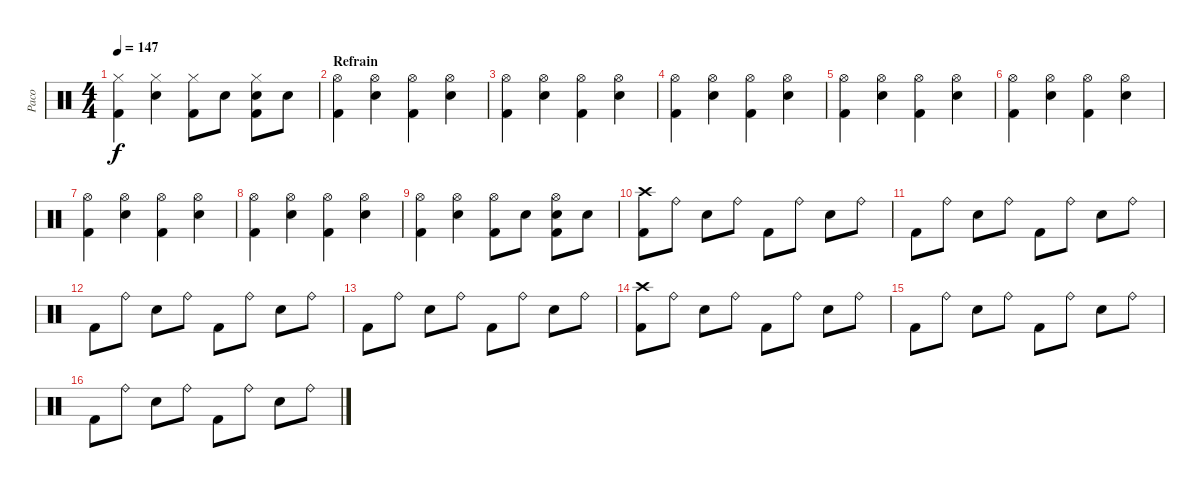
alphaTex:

\track ("Paco" "Paco") {instrument percussion}
\staff {score}
\articulation defaults
\ts (4 4)
\tempo 147
\clef neutral
\ks c
("Hi-Hat (closed)" "Kick (hit) 2").4{dy f} ("Hi-Hat (closed)" "Snare (hit) 2").4 ("Hi-Hat (closed)" "Kick (hit) 2").8 "Snare (hit) 2".8 ("Hi-Hat (closed)" "Snare (hit) 2" "Kick (hit) 2").8 "Snare (hit) 2".8 |
\section ("" "Refrain")
("Hi-Hat (open)" "Kick (hit) 2").4 ("Hi-Hat (open)" "Snare (hit) 2").4 ("Hi-Hat (open)" "Kick (hit) 2").4 ("Hi-Hat (open)" "Snare (hit) 2").4 |
("Hi-Hat (open)" "Kick (hit) 2").4 ("Hi-Hat (open)" "Snare (hit) 2").4 ("Hi-Hat (open)" "Kick (hit) 2").4 ("Hi-Hat (open)" "Snare (hit) 2").4 |
("Hi-Hat (open)" "Kick (hit) 2").4 ("Hi-Hat (open)" "Snare (hit) 2").4 ("Hi-Hat (open)" "Kick (hit) 2").4 ("Hi-Hat (open)" "Snare (hit) 2").4 |
("Hi-Hat (open)" "Kick (hit) 2").4 ("Hi-Hat (open)" "Snare (hit) 2").4 ("Hi-Hat (open)" "Kick (hit) 2").4 ("Hi-Hat (open)" "Snare (hit) 2").4 |
("Hi-Hat (open)" "Kick (hit) 2").4 ("Hi-Hat (open)" "Snare (hit) 2").4 ("Hi-Hat (open)" "Kick (hit) 2").4 ("Hi-Hat (open)" "Snare (hit) 2").4 |
("Hi-Hat (open)" "Kick (hit) 2").4 ("Hi-Hat (open)" "Snare (hit) 2").4 ("Hi-Hat (open)" "Kick (hit) 2").4 ("Hi-Hat (open)" "Snare (hit) 2").4 |
("Hi-Hat (open)" "Kick (hit) 2").4 ("Hi-Hat (open)" "Snare (hit) 2").4 ("Hi-Hat (open)" "Kick (hit) 2").4 ("Hi-Hat (open)" "Snare (hit) 2").4 |
("Hi-Hat (open)" "Kick (hit) 2").4 ("Hi-Hat (open)" "Snare (hit) 2").4 ("Hi-Hat (open)" "Kick (hit) 2").8 "Snare (hit) 2".8 ("Hi-Hat (open)" "Snare (hit) 2" "Kick (hit) 2").8 "Snare (hit) 2".8 |
("Crash high (hit)" "Kick (hit) 2").8 "Ride (bell)".8 "Snare (hit) 2".8 "Ride (bell)".8 "Kick (hit) 2".8 "Ride (bell)".8 "Snare (hit) 2".8 "Ride (bell)".8 |
"Kick (hit) 2".8 "Ride (bell)".8 "Snare (hit) 2".8 "Ride (bell)".8 "Kick (hit) 2".8 "Ride (bell)".8 "Snare (hit) 2".8 "Ride (bell)".8 |
"Kick (hit) 2".8 "Ride (bell)".8 "Snare (hit) 2".8 "Ride (bell)".8 "Kick (hit) 2".8 "Ride (bell)".8 "Snare (hit) 2".8 "Ride (bell)".8 |
"Kick (hit) 2".8 "Ride (bell)".8 "Snare (hit) 2".8 "Ride (bell)".8 "Kick (hit) 2".8 "Ride (bell)".8 "Snare (hit) 2".8 "Ride (bell)".8 |
("Crash high (hit)" "Kick (hit) 2").8 "Ride (bell)".8 "Snare (hit) 2".8 "Ride (bell)".8 "Kick (hit) 2".8 "Ride (bell)".8 "Snare (hit) 2".8 "Ride (bell)".8 |
"Kick (hit) 2".8 "Ride (bell)".8 "Snare (hit) 2".8 "Ride (bell)".8 "Kick (hit) 2".8 "Ride (bell)".8 "Snare (hit) 2".8 "Ride (bell)".8 |
"Kick (hit) 2".8 "Ride (bell)".8 "Snare (hit) 2".8 "Ride (bell)".8 "Kick (hit) 2".8 "Ride (bell)".8 "Snare (hit) 2".8 "Ride (bell)".8
